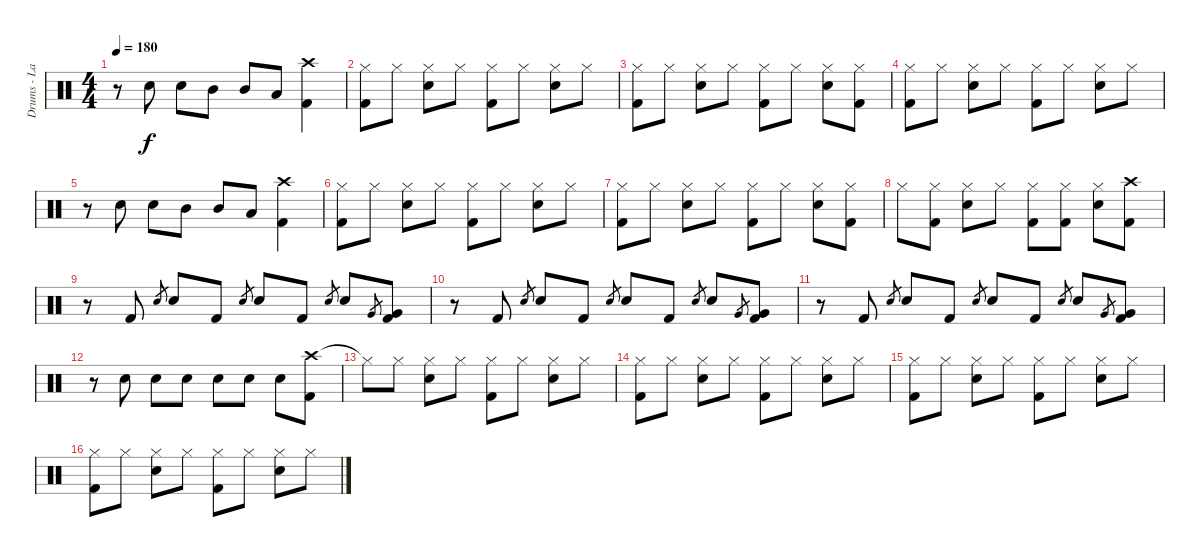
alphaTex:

\track ("Drums - Lars" "Drums - La") {instrument percussion}
\staff {score}
\articulation defaults
\ts (4 4)
\tempo 180
\clef neutral
\ks c
r.8{dy f} "Snare (hit) 2".8 "Snare (hit) 2".8 "Mid Tom (hit)".8 "Mid Tom (hit)".8 "Low Tom (hit)".8 ("Crash high (hit)" "Kick (hit) 2").4 |
("Hi-Hat (closed)" "Kick (hit) 2").8 "Hi-Hat (closed)".8 ("Hi-Hat (closed)" "Snare (hit) 2").8 "Hi-Hat (closed)".8 ("Hi-Hat (closed)" "Kick (hit) 2").8 "Hi-Hat (closed)".8 ("Hi-Hat (closed)" "Snare (hit) 2").8 "Hi-Hat (closed)".8 |
("Hi-Hat (closed)" "Kick (hit) 2").8 "Hi-Hat (closed)".8 ("Hi-Hat (closed)" "Snare (hit) 2").8 "Hi-Hat (closed)".8 ("Hi-Hat (closed)" "Kick (hit) 2").8 "Hi-Hat (closed)".8 ("Hi-Hat (closed)" "Snare (hit) 2").8 ("Hi-Hat (closed)" "Kick (hit) 2").8 |
("Hi-Hat (closed)" "Kick (hit) 2").8 "Hi-Hat (closed)".8 ("Hi-Hat (closed)" "Snare (hit) 2").8 "Hi-Hat (closed)".8 ("Hi-Hat (closed)" "Kick (hit) 2").8 "Hi-Hat (closed)".8 ("Hi-Hat (closed)" "Snare (hit) 2").8 "Hi-Hat (closed)".8 |
r.8 "Snare (hit) 2".8 "Snare (hit) 2".8 "Mid Tom (hit)".8 "Mid Tom (hit)".8 "Low Tom (hit)".8 ("Crash high (hit)" "Kick (hit) 2").4 |
("Hi-Hat (closed)" "Kick (hit) 2").8 "Hi-Hat (closed)".8 ("Hi-Hat (closed)" "Snare (hit) 2").8 "Hi-Hat (closed)".8 ("Hi-Hat (closed)" "Kick (hit) 2").8 "Hi-Hat (closed)".8 ("Hi-Hat (closed)" "Snare (hit) 2").8 "Hi-Hat (closed)".8 |
("Hi-Hat (closed)" "Kick (hit) 2").8 "Hi-Hat (closed)".8 ("Hi-Hat (closed)" "Snare (hit) 2").8 "Hi-Hat (closed)".8 ("Hi-Hat (closed)" "Kick (hit) 2").8 "Hi-Hat (closed)".8 ("Hi-Hat (closed)" "Snare (hit) 2").8 ("Hi-Hat (closed)" "Kick (hit) 2").8 |
"Hi-Hat (closed)".8 ("Hi-Hat (closed)" "Kick (hit) 2").8 ("Hi-Hat (closed)" "Snare (hit) 2").8 "Hi-Hat (closed)".8 ("Hi-Hat (closed)" "Kick (hit) 2").8 ("Hi-Hat (closed)" "Kick (hit) 2").8 ("Hi-Hat (closed)" "Snare (hit) 2").8 ("Crash high (hit)" "Kick (hit) 2").8 |
r.8 "Kick (hit) 2".8 "Snare (hit) 2".8{gr} "Snare (hit) 2".8 "Kick (hit) 2".8 "Snare (hit) 2".8{gr} "Snare (hit) 2".8 "Kick (hit) 2".8 "Snare (hit) 2".8{gr} "Snare (hit) 2".8 "Very Low Tom (hit)".8{gr} ("Very Low Tom (hit)" "Kick (hit) 2").8 |
r.8 "Kick (hit) 2".8 "Snare (hit) 2".8{gr} "Snare (hit) 2".8 "Kick (hit) 2".8 "Snare (hit) 2".8{gr} "Snare (hit) 2".8 "Kick (hit) 2".8 "Snare (hit) 2".8{gr} "Snare (hit) 2".8 "Very Low Tom (hit)".8{gr} ("Very Low Tom (hit)" "Kick (hit) 2").8 |
r.8 "Kick (hit) 2".8 "Snare (hit) 2".8{gr} "Snare (hit) 2".8 "Kick (hit) 2".8 "Snare (hit) 2".8{gr} "Snare (hit) 2".8 "Kick (hit) 2".8 "Snare (hit) 2".8{gr} "Snare (hit) 2".8 "Very Low Tom (hit)".8{gr} ("Very Low Tom (hit)" "Kick (hit) 2").8 |
r.8 "Snare (hit) 2".8 "Snare (hit) 2".8 "Snare (hit) 2".8 "Snare (hit) 2".8 "Snare (hit) 2".8 "Snare (hit) 2".8 ("Crash high (hit)" "Kick (hit) 2").8 |
"Hi-Hat (closed)"{t}.8 "Hi-Hat (closed)".8 ("Hi-Hat (closed)" "Snare (hit) 2").8 "Hi-Hat (closed)".8 ("Hi-Hat (closed)" "Kick (hit) 2").8 "Hi-Hat (closed)".8 ("Hi-Hat (closed)" "Snare (hit) 2").8 "Hi-Hat (closed)".8 |
("Hi-Hat (closed)" "Kick (hit) 2").8 "Hi-Hat (closed)".8 ("Hi-Hat (closed)" "Snare (hit) 2").8 "Hi-Hat (closed)".8 ("Hi-Hat (closed)" "Kick (hit) 2").8 "Hi-Hat (closed)".8 ("Hi-Hat (closed)" "Snare (hit) 2").8 "Hi-Hat (closed)".8 |
("Hi-Hat (closed)" "Kick (hit) 2").8 "Hi-Hat (closed)".8 ("Hi-Hat (closed)" "Snare (hit) 2").8 "Hi-Hat (closed)".8 ("Hi-Hat (closed)" "Kick (hit) 2").8 "Hi-Hat (closed)".8 ("Hi-Hat (closed)" "Snare (hit) 2").8 "Hi-Hat (closed)".8 |
("Hi-Hat (closed)" "Kick (hit) 2").8 "Hi-Hat (closed)".8 ("Hi-Hat (closed)" "Snare (hit) 2").8 "Hi-Hat (closed)".8 ("Hi-Hat (closed)" "Kick (hit) 2").8 "Hi-Hat (closed)".8 ("Hi-Hat (closed)" "Snare (hit) 2").8 "Hi-Hat (closed)".8
